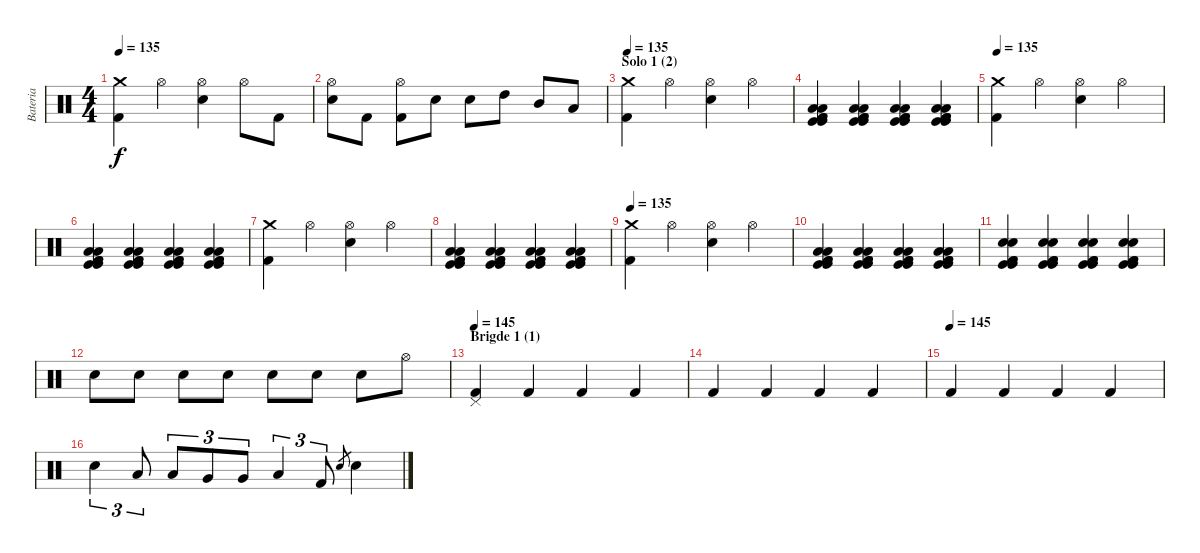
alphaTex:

\track ("Bateria" "Bateria") {instrument percussion}
\staff {score}
\articulation defaults
\ts (4 4)
\tempo 135
\clef neutral
\ks c
("Kick (hit) 2" "Crash medium (hit)").4{dy f} "Hi-Hat (open)".4 ("Hi-Hat (open)" "Snare (hit) 2").4 "Hi-Hat (open)".8 "Kick (hit) 2".8 |
("Hi-Hat (open)" "Snare (hit) 2").8 "Kick (hit) 2".8 ("Kick (hit) 2" "Hi-Hat (open)").8 "Snare (hit) 2".8 "Snare (hit) 2".8 "High Tom (hit)".8 "Mid Tom (hit)".8 "Low Tom (hit)".8 |
\section ("" "Solo 1 (2)")
\tempo 135
("Kick (hit) 2" "Crash medium (hit)").4 "Hi-Hat (open)".4 ("Hi-Hat (open)" "Snare (hit) 2").4 "Hi-Hat (open)".4 |
("Low Floor Tom (hit)" "Kick (hit)" "Kick (hit)" "Kick (hit) 2" "Kick (hit) 2" "Low Floor Tom (hit)").4 ("Low Floor Tom (hit)" "Kick (hit)" "Kick (hit)" "Kick (hit) 2" "Kick (hit) 2" "Low Floor Tom (hit)").4 ("Low Floor Tom (hit)" "Kick (hit)" "Kick (hit)" "Kick (hit) 2" "Kick (hit) 2" "Low Floor Tom (hit)").4 ("Low Floor Tom (hit)" "Kick (hit)" "Kick (hit)" "Kick (hit) 2" "Kick (hit) 2" "Low Floor Tom (hit)").4 |
\tempo 135
("Kick (hit) 2" "Crash medium (hit)").4 "Hi-Hat (open)".4 ("Hi-Hat (open)" "Snare (hit) 2").4 "Hi-Hat (open)".4 |
("Low Floor Tom (hit)" "Kick (hit)" "Kick (hit)" "Kick (hit) 2" "Kick (hit) 2" "Low Floor Tom (hit)").4 ("Low Floor Tom (hit)" "Kick (hit)" "Kick (hit)" "Kick (hit) 2" "Kick (hit) 2" "Low Floor Tom (hit)").4 ("Low Floor Tom (hit)" "Kick (hit)" "Kick (hit)" "Kick (hit) 2" "Kick (hit) 2" "Low Floor Tom (hit)").4 ("Low Floor Tom (hit)" "Kick (hit)" "Kick (hit)" "Kick (hit) 2" "Kick (hit) 2" "Low Floor Tom (hit)").4 |
("Kick (hit) 2" "Crash medium (hit)").4 "Hi-Hat (open)".4 ("Hi-Hat (open)" "Snare (hit) 2").4 "Hi-Hat (open)".4 |
("Low Floor Tom (hit)" "Kick (hit)" "Kick (hit)" "Kick (hit) 2" "Kick (hit) 2" "Low Floor Tom (hit)").4 ("Low Floor Tom (hit)" "Kick (hit)" "Kick (hit)" "Kick (hit) 2" "Kick (hit) 2" "Low Floor Tom (hit)").4 ("Low Floor Tom (hit)" "Kick (hit)" "Kick (hit)" "Kick (hit) 2" "Kick (hit) 2" "Low Floor Tom (hit)").4 ("Low Floor Tom (hit)" "Kick (hit)" "Kick (hit)" "Kick (hit) 2" "Kick (hit) 2" "Low Floor Tom (hit)").4 |
\tempo 135
("Kick (hit) 2" "Crash medium (hit)").4 "Hi-Hat (open)".4 ("Hi-Hat (open)" "Snare (hit) 2").4 "Hi-Hat (open)".4 |
("Low Floor Tom (hit)" "Kick (hit)" "Kick (hit)" "Kick (hit) 2" "Kick (hit) 2" "Low Floor Tom (hit)").4 ("Low Floor Tom (hit)" "Kick (hit)" "Kick (hit)" "Kick (hit) 2" "Kick (hit) 2" "Low Floor Tom (hit)").4 ("Low Floor Tom (hit)" "Kick (hit)" "Kick (hit)" "Kick (hit) 2" "Kick (hit) 2" "Low Floor Tom (hit)").4 ("Low Floor Tom (hit)" "Kick (hit)" "Kick (hit)" "Kick (hit) 2" "Kick (hit) 2" "Low Floor Tom (hit)").4 |
("Snare (hit) 2" "Kick (hit)" "Kick (hit)" "Kick (hit) 2" "Kick (hit) 2" "Snare (hit) 2").4 ("Snare (hit) 2" "Kick (hit)" "Kick (hit)" "Kick (hit) 2" "Kick (hit) 2" "Snare (hit) 2").4 ("Snare (hit) 2" "Kick (hit)" "Kick (hit)" "Kick (hit) 2" "Kick (hit) 2" "Snare (hit) 2").4 ("Snare (hit) 2" "Kick (hit)" "Kick (hit)" "Kick (hit) 2" "Kick (hit) 2" "Snare (hit) 2").4 |
"Snare (hit) 2".8 "Snare (hit) 2".8 "Snare (hit) 2".8 "Snare (hit) 2".8 "Snare (hit) 2".8 "Snare (hit) 2".8 "Snare (hit) 2".8 "Hi-Hat (open)".8 |
\section ("" "Brigde 1 (1)")
\tempo 145
("Kick (hit) 2" "Pedal Hi-Hat (hit)").4 "Kick (hit) 2".4 "Kick (hit) 2".4 "Kick (hit) 2".4 |
"Kick (hit) 2".4 "Kick (hit) 2".4 "Kick (hit) 2".4 "Kick (hit) 2".4 |
\tempo (145)
"Kick (hit) 2".4 "Kick (hit) 2".4 "Kick (hit) 2".4 "Kick (hit) 2".4 |
"Snare (hit) 2".4{tu (3 2)} "Low Tom (hit)".8{tu (3 2)} "Low Tom (hit)".8{tu (3 2)} "Very Low Tom (hit)".8{tu (3 2)} "Very Low Tom (hit)".8{tu (3 2)} "Low Floor Tom (hit)".4{tu (3 2)} "Kick (hit) 2".8{tu (3 2)} "Snare (hit) 2".8{gr} "Snare (hit) 2".4
